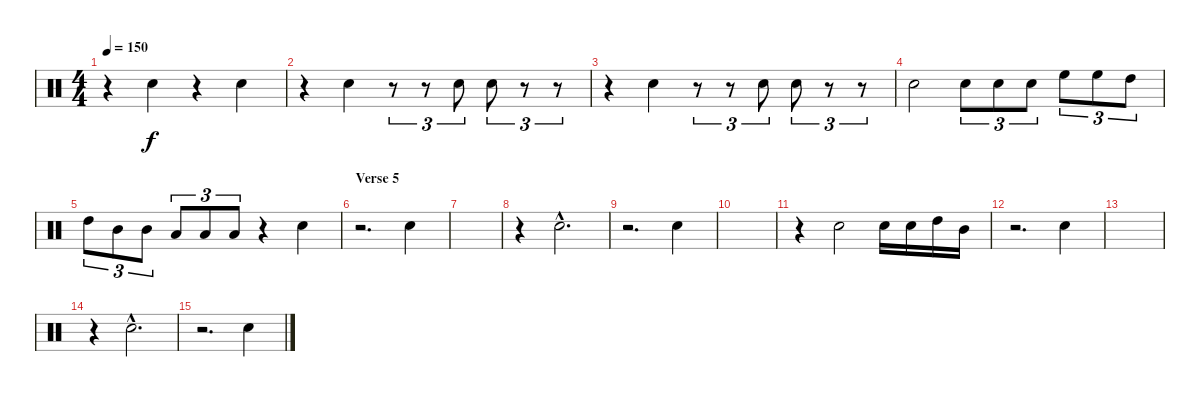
\track "" {instrument percussion}
\staff {score}
\articulation defaults
\ts (4 4)
\tempo 150
\clef neutral
\ks c
r.4{dy f} "Electric Snare (hit)".4 r.4 "Electric Snare (hit)".4 |
r.4 "Electric Snare (hit)".4 r.8{tu (3 2)} r.8{tu (3 2)} "Electric Snare (hit)".8{tu (3 2)} "Electric Snare (hit)".8{tu (3 2)} r.8{tu (3 2)} r.8{tu (3 2)} |
r.4 "Electric Snare (hit)".4 r.8{tu (3 2)} r.8{tu (3 2)} "Electric Snare (hit)".8{tu (3 2)} "Electric Snare (hit)".8{tu (3 2)} r.8{tu (3 2)} r.8{tu (3 2)} |
"Electric Snare (hit)".2 "Electric Snare (hit)".8{tu (3 2)} "Electric Snare (hit)".8{tu (3 2)} "Electric Snare (hit)".8{tu (3 2)} "High Floor Tom (hit)".8{tu (3 2)} "High Floor Tom (hit)".8{tu (3 2)} "High Tom (hit)".8{tu (3 2)} |
"High Tom (hit)".8{tu (3 2)} "Mid Tom (hit)".8{tu (3 2)} "Mid Tom (hit)".8{tu (3 2)} "Low Tom (hit)".8{tu (3 2)} "Low Tom (hit)".8{tu (3 2)} "Low Tom (hit)".8{tu (3 2)} r.4 "Electric Snare (hit)".4 |
\section ("" "Verse 5")
r.2{d} "Electric Snare (hit)".4 |
|
r.4 "Electric Snare (hit)"{hac}.2{d} |
r.2{d} "Electric Snare (hit)".4 |
|
r.4 "Electric Snare (hit)".2 "Electric Snare (hit)".16 "Electric Snare (hit)".16 "High Tom (hit)".16 "Mid Tom (hit)".16 |
r.2{d} "Electric Snare (hit)".4 |
|
r.4 "Electric Snare (hit)"{hac}.2{d} |
r.2{d} "Electric Snare (hit)".4
